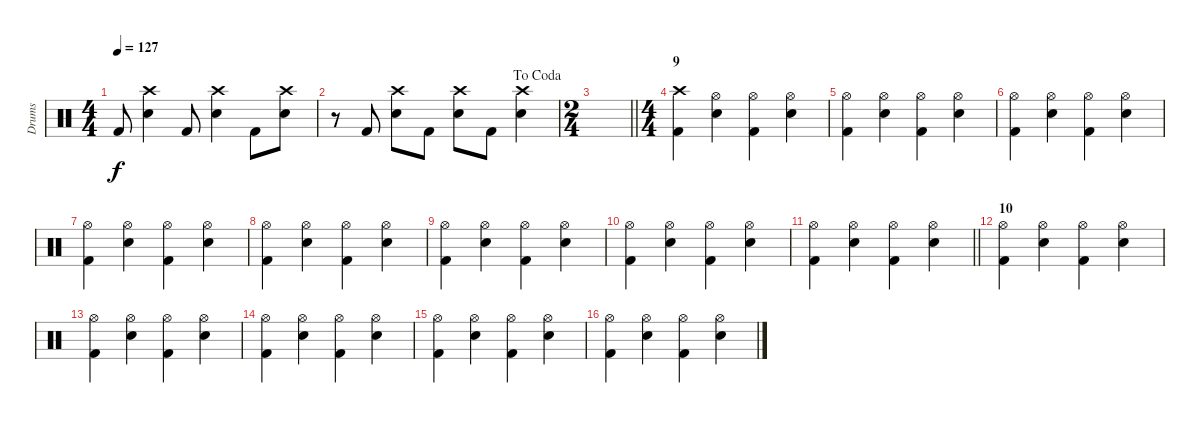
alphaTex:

\track ("Drums" "Drums") {instrument percussion}
\staff {score}
\articulation defaults
\ts (4 4)
\tempo 127
\clef neutral
\ks c "Kick (hit) 2".8{dy f}
("Crash high (hit)" "Snare (hit) 2").4 "Kick (hit) 2".8 ("Crash high (hit)" "Snare (hit) 2").4 "Kick (hit) 2".8 ("Crash high (hit)" "Snare (hit) 2").8 |
\jump dacoda
r.8 "Kick (hit) 2".8 ("Crash high (hit)" "Snare (hit) 2").8 "Kick (hit) 2".8 ("Crash high (hit)" "Snare (hit) 2").8 "Kick (hit) 2".8 ("Crash high (hit)" "Snare (hit) 2").4 |
\ts (2 4)
\barLineRight lightlight
|
\ts (4 4)
\section ("" "9")
("Crash high (hit)" "Kick (hit) 2").4 ("Hi-Hat (open)" "Snare (hit) 2").4 ("Hi-Hat (open)" "Kick (hit) 2").4 ("Hi-Hat (open)" "Snare (hit) 2").4 |
("Hi-Hat (open)" "Kick (hit) 2").4 ("Hi-Hat (open)" "Snare (hit) 2").4 ("Hi-Hat (open)" "Kick (hit) 2").4 ("Hi-Hat (open)" "Snare (hit) 2").4 |
("Hi-Hat (open)" "Kick (hit) 2").4 ("Hi-Hat (open)" "Snare (hit) 2").4 ("Hi-Hat (open)" "Kick (hit) 2").4 ("Hi-Hat (open)" "Snare (hit) 2").4 |
("Hi-Hat (open)" "Kick (hit) 2").4 ("Hi-Hat (open)" "Snare (hit) 2").4 ("Hi-Hat (open)" "Kick (hit) 2").4 ("Hi-Hat (open)" "Snare (hit) 2").4 |
("Hi-Hat (open)" "Kick (hit) 2").4 ("Hi-Hat (open)" "Snare (hit) 2").4 ("Hi-Hat (open)" "Kick (hit) 2").4 ("Hi-Hat (open)" "Snare (hit) 2").4 |
("Hi-Hat (open)" "Kick (hit) 2").4 ("Hi-Hat (open)" "Snare (hit) 2").4 ("Hi-Hat (open)" "Kick (hit) 2").4 ("Hi-Hat (open)" "Snare (hit) 2").4 |
("Hi-Hat (open)" "Kick (hit) 2").4 ("Hi-Hat (open)" "Snare (hit) 2").4 ("Hi-Hat (open)" "Kick (hit) 2").4 ("Hi-Hat (open)" "Snare (hit) 2").4 |
\barLineRight lightlight
("Hi-Hat (open)" "Kick (hit) 2").4 ("Hi-Hat (open)" "Snare (hit) 2").4 ("Hi-Hat (open)" "Kick (hit) 2").4 ("Hi-Hat (open)" "Snare (hit) 2").4 |
\section ("" "10")
("Hi-Hat (open)" "Kick (hit) 2").4 ("Hi-Hat (open)" "Snare (hit) 2").4 ("Hi-Hat (open)" "Kick (hit) 2").4 ("Hi-Hat (open)" "Snare (hit) 2").4 |
("Hi-Hat (open)" "Kick (hit) 2").4 ("Hi-Hat (open)" "Snare (hit) 2").4 ("Hi-Hat (open)" "Kick (hit) 2").4 ("Hi-Hat (open)" "Snare (hit) 2").4 |
("Hi-Hat (open)" "Kick (hit) 2").4 ("Hi-Hat (open)" "Snare (hit) 2").4 ("Hi-Hat (open)" "Kick (hit) 2").4 ("Hi-Hat (open)" "Snare (hit) 2").4 |
("Hi-Hat (open)" "Kick (hit) 2").4 ("Hi-Hat (open)" "Snare (hit) 2").4 ("Hi-Hat (open)" "Kick (hit) 2").4 ("Hi-Hat (open)" "Snare (hit) 2").4 |
("Hi-Hat (open)" "Kick (hit) 2").4 ("Hi-Hat (open)" "Snare (hit) 2").4 ("Hi-Hat (open)" "Kick (hit) 2").4 ("Hi-Hat (open)" "Snare (hit) 2").4
